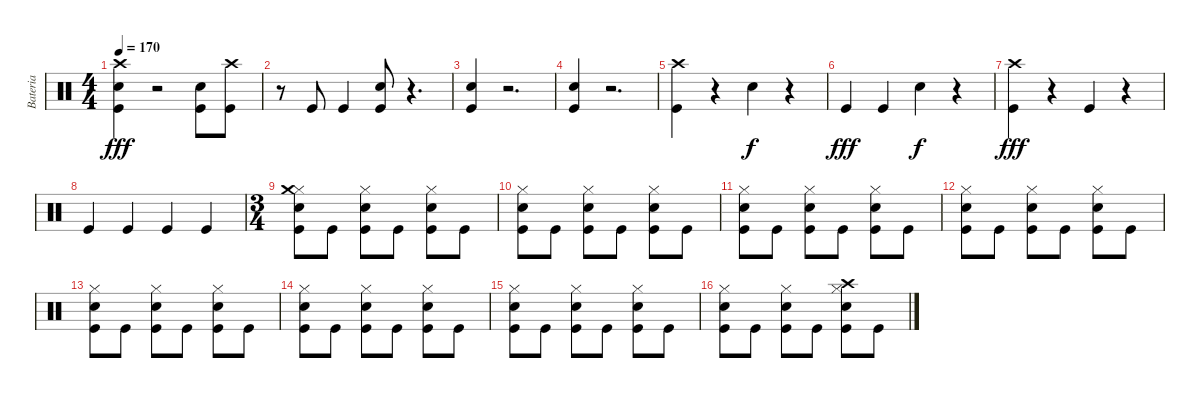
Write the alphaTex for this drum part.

\track ("Bateria" "Bateria") {instrument percussion}
\staff {score}
\articulation defaults
\ts (4 4)
\tempo 170
\clef neutral
\ks c
("Kick (hit)" "Snare (hit) 2" "Crash high (hit)").4{dy fff} r.2 ("Kick (hit)" "Snare (hit) 2").8 ("Kick (hit)" "Crash high (hit)").8 |
r.8 "Kick (hit)".8 "Kick (hit)".4 ("Kick (hit)" "Snare (hit) 2").8 r.4{d} |
("Kick (hit)" "Snare (hit) 2").4 r.2{d} |
("Kick (hit)" "Snare (hit) 2").4 r.2{d} |
("Kick (hit)" "Crash high (hit)").4 r.4 "Snare (hit) 2".4{dy f} r.4 |
"Kick (hit)".4{dy fff} "Kick (hit)".4 "Snare (hit) 2".4{dy f} r.4 |
("Kick (hit)" "Crash high (hit)").4{dy fff} r.4 "Kick (hit)".4 r.4 |
"Kick (hit)".4 "Kick (hit)".4 "Kick (hit)".4 "Kick (hit)".4 |
\ts (3 4)
("Kick (hit)" "Snare (hit) 2" "Hi-Hat (closed)" "Crash medium (hit)").8 "Kick (hit)".8 ("Kick (hit)" "Snare (hit) 2" "Hi-Hat (closed)").8 "Kick (hit)".8 ("Kick (hit)" "Snare (hit) 2" "Hi-Hat (closed)").8 "Kick (hit)".8 |
("Kick (hit)" "Snare (hit) 2" "Hi-Hat (closed)").8 "Kick (hit)".8 ("Kick (hit)" "Snare (hit) 2" "Hi-Hat (closed)").8 "Kick (hit)".8 ("Kick (hit)" "Snare (hit) 2" "Hi-Hat (closed)").8 "Kick (hit)".8 |
("Kick (hit)" "Snare (hit) 2" "Hi-Hat (closed)").8 "Kick (hit)".8 ("Kick (hit)" "Snare (hit) 2" "Hi-Hat (closed)").8 "Kick (hit)".8 ("Kick (hit)" "Snare (hit) 2" "Hi-Hat (closed)").8 "Kick (hit)".8 |
("Kick (hit)" "Snare (hit) 2" "Hi-Hat (closed)").8 "Kick (hit)".8 ("Kick (hit)" "Snare (hit) 2" "Hi-Hat (closed)").8 "Kick (hit)".8 ("Kick (hit)" "Snare (hit) 2" "Hi-Hat (closed)").8 "Kick (hit)".8 |
("Kick (hit)" "Snare (hit) 2" "Hi-Hat (closed)").8 "Kick (hit)".8 ("Kick (hit)" "Snare (hit) 2" "Hi-Hat (closed)").8 "Kick (hit)".8 ("Kick (hit)" "Snare (hit) 2" "Hi-Hat (closed)").8 "Kick (hit)".8 |
("Kick (hit)" "Snare (hit) 2" "Hi-Hat (closed)").8 "Kick (hit)".8 ("Kick (hit)" "Snare (hit) 2" "Hi-Hat (closed)").8 "Kick (hit)".8 ("Kick (hit)" "Snare (hit) 2" "Hi-Hat (closed)").8 "Kick (hit)".8 |
("Kick (hit)" "Snare (hit) 2" "Hi-Hat (closed)").8 "Kick (hit)".8 ("Kick (hit)" "Snare (hit) 2" "Hi-Hat (closed)").8 "Kick (hit)".8 ("Kick (hit)" "Snare (hit) 2" "Hi-Hat (closed)").8 "Kick (hit)".8 |
("Kick (hit)" "Snare (hit) 2" "Hi-Hat (closed)").8 "Kick (hit)".8 ("Kick (hit)" "Snare (hit) 2" "Hi-Hat (closed)").8 "Kick (hit)".8 ("Kick (hit)" "Snare (hit) 2" "Hi-Hat (closed)" "Crash high (hit)").8 "Kick (hit)".8
